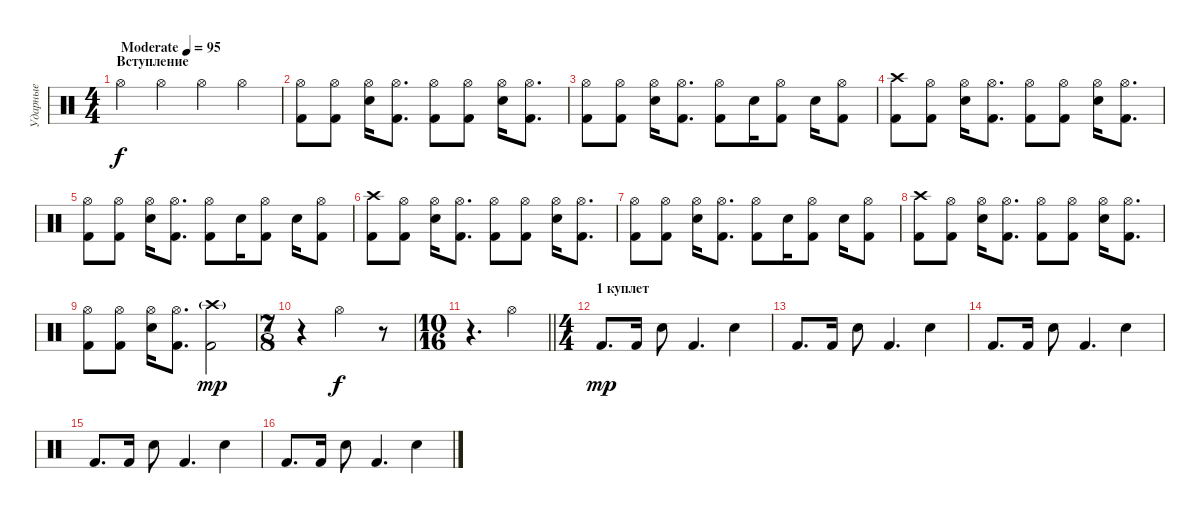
\track ("Ударные" "Ударные") {instrument percussion}
\staff {score}
\articulation defaults
\ts (4 4)
\section ("" "Вступление")
\tempo (95 "Moderate")
\clef neutral
\ks c "Hi-Hat (open)".4{dy f} "Hi-Hat (open)".4 "Hi-Hat (open)".4 "Hi-Hat (open)".4
|
("Kick (hit) 2" "Hi-Hat (open)").8 ("Kick (hit) 2" "Hi-Hat (open)").8 ("Electric Snare (hit)" "Hi-Hat (open)").16 ("Hi-Hat (open)" "Kick (hit) 2").8{d} ("Kick (hit) 2" "Hi-Hat (open)").8 ("Kick (hit) 2" "Hi-Hat (open)").8 ("Electric Snare (hit)" "Hi-Hat (open)").16 ("Hi-Hat (open)" "Kick (hit) 2").8{d} |
("Kick (hit) 2" "Hi-Hat (open)").8 ("Kick (hit) 2" "Hi-Hat (open)").8 ("Electric Snare (hit)" "Hi-Hat (open)").16 ("Hi-Hat (open)" "Kick (hit) 2").8{d} ("Kick (hit) 2" "Hi-Hat (open)").8 "Electric Snare (hit)".16 ("Hi-Hat (open)" "Kick (hit) 2").8 "Electric Snare (hit)".16 ("Hi-Hat (open)" "Kick (hit) 2").8 |
("Kick (hit) 2" "Crash high (hit)").8 ("Kick (hit) 2" "Hi-Hat (open)").8 ("Electric Snare (hit)" "Hi-Hat (open)").16 ("Hi-Hat (open)" "Kick (hit) 2").8{d} ("Kick (hit) 2" "Hi-Hat (open)").8 ("Kick (hit) 2" "Hi-Hat (open)").8 ("Electric Snare (hit)" "Hi-Hat (open)").16 ("Hi-Hat (open)" "Kick (hit) 2").8{d} |
("Kick (hit) 2" "Hi-Hat (open)").8 ("Kick (hit) 2" "Hi-Hat (open)").8 ("Electric Snare (hit)" "Hi-Hat (open)").16 ("Hi-Hat (open)" "Kick (hit) 2").8{d} ("Kick (hit) 2" "Hi-Hat (open)").8 "Electric Snare (hit)".16 ("Hi-Hat (open)" "Kick (hit) 2").8 "Electric Snare (hit)".16 ("Hi-Hat (open)" "Kick (hit) 2").8 |
("Kick (hit) 2" "Crash high (hit)").8 ("Kick (hit) 2" "Hi-Hat (open)").8 ("Electric Snare (hit)" "Hi-Hat (open)").16 ("Hi-Hat (open)" "Kick (hit) 2").8{d} ("Kick (hit) 2" "Hi-Hat (open)").8 ("Kick (hit) 2" "Hi-Hat (open)").8 ("Electric Snare (hit)" "Hi-Hat (open)").16 ("Hi-Hat (open)" "Kick (hit) 2").8{d} |
("Kick (hit) 2" "Hi-Hat (open)").8 ("Kick (hit) 2" "Hi-Hat (open)").8 ("Electric Snare (hit)" "Hi-Hat (open)").16 ("Hi-Hat (open)" "Kick (hit) 2").8{d} ("Kick (hit) 2" "Hi-Hat (open)").8 "Electric Snare (hit)".16 ("Hi-Hat (open)" "Kick (hit) 2").8 "Electric Snare (hit)".16 ("Hi-Hat (open)" "Kick (hit) 2").8 |
("Kick (hit) 2" "Crash high (hit)").8 ("Kick (hit) 2" "Hi-Hat (open)").8 ("Electric Snare (hit)" "Hi-Hat (open)").16 ("Hi-Hat (open)" "Kick (hit) 2").8{d} ("Kick (hit) 2" "Hi-Hat (open)").8 ("Kick (hit) 2" "Hi-Hat (open)").8 ("Electric Snare (hit)" "Hi-Hat (open)").16 ("Hi-Hat (open)" "Kick (hit) 2").8{d} |
("Kick (hit) 2" "Hi-Hat (open)").8 ("Kick (hit) 2" "Hi-Hat (open)").8 ("Electric Snare (hit)" "Hi-Hat (open)").16 ("Hi-Hat (open)" "Kick (hit) 2").8{d} ("Crash high (hit)"{g} "Kick (hit) 2").2{dy mp} |
\ts (7 8)
r.4 "Hi-Hat (open)".2{dy f} r.8 |
\ts (10 16)
\barLineRight lightlight
r.4{d} "Hi-Hat (open)".4 |
\ts (4 4)
\section ("" "1 куплет")
"Kick (hit) 2".8{d dy mp} "Kick (hit) 2".16 "Snare (hit) 2".8 "Kick (hit) 2".4{d} "Snare (hit) 2".4 |
"Kick (hit) 2".8{d} "Kick (hit) 2".16 "Snare (hit) 2".8 "Kick (hit) 2".4{d} "Snare (hit) 2".4 |
"Kick (hit) 2".8{d} "Kick (hit) 2".16 "Snare (hit) 2".8 "Kick (hit) 2".4{d} "Snare (hit) 2".4 |
"Kick (hit) 2".8{d} "Kick (hit) 2".16 "Snare (hit) 2".8 "Kick (hit) 2".4{d} "Snare (hit) 2".4 |
"Kick (hit) 2".8{d} "Kick (hit) 2".16 "Snare (hit) 2".8 "Kick (hit) 2".4{d} "Snare (hit) 2".4
